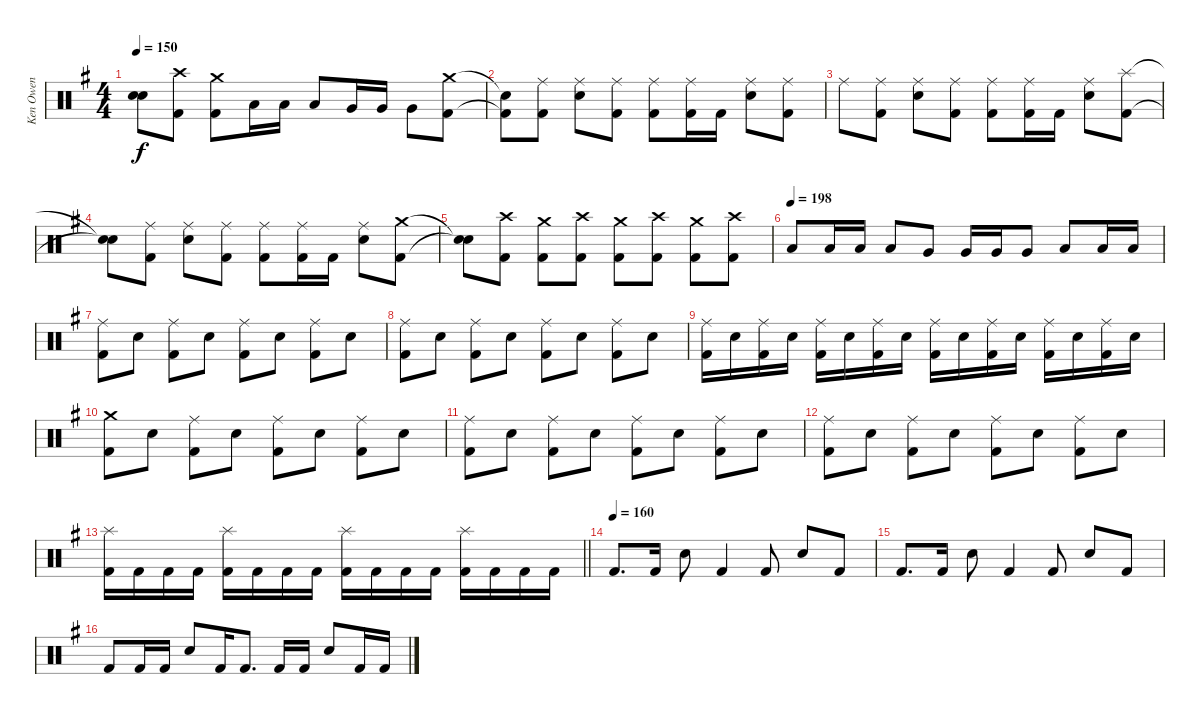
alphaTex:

\track ("Ken Owen" "Ken Owen") {instrument percussion}
\staff {score}
\articulation defaults
\ts (4 4)
\tempo 150
\clef neutral
\ks g
("Snare (hit)"{t} "Snare (hit)"{t}).8{dy f} ("Crash high (hit)" "Kick (hit) 2").8 ("Crash medium (hit)" "Kick (hit) 2").8 "Low Tom (hit)".16 "Low Tom (hit)".16 "Low Tom (hit)".8 "Very Low Tom (hit)".16 "Very Low Tom (hit)".16 "Very Low Tom (hit)".8 ("Crash medium (hit)" "Kick (hit) 2").8 |
("Snare (hit)"{t} "Kick (hit) 2"{t}).8 ("Ride (middle)" "Kick (hit) 2").8 ("Ride (middle)" "Snare (hit) 2").8 ("Ride (middle)" "Kick (hit) 2").8 ("Ride (middle)" "Kick (hit) 2").8 ("Ride (middle)" "Kick (hit) 2").16 "Kick (hit) 2".16 ("Ride (middle)" "Snare (hit) 2").8 ("Ride (middle)" "Kick (hit) 2").8 |
"Ride (middle)".8 ("Ride (middle)" "Kick (hit) 2").8 ("Ride (middle)" "Snare (hit) 2").8 ("Ride (middle)" "Kick (hit) 2").8 ("Ride (middle)" "Kick (hit) 2").8 ("Ride (middle)" "Kick (hit) 2").16 "Kick (hit) 2".16 ("Ride (middle)" "Snare (hit) 2").8 ("Splash (hit)" "Kick (hit) 2").8 |
("Snare (hit)"{t} "Snare (hit)"{t}).8 ("Ride (middle)" "Kick (hit) 2").8 ("Ride (middle)" "Snare (hit) 2").8 ("Ride (middle)" "Kick (hit) 2").8 ("Ride (middle)" "Kick (hit) 2").8 ("Ride (middle)" "Kick (hit) 2").16 "Kick (hit) 2".16 ("Ride (middle)" "Snare (hit) 2").8 ("Crash medium (hit)" "Kick (hit) 2").8 |
("Snare (hit)"{t} "Snare (hit)"{t}).8 ("Crash high (hit)" "Kick (hit) 2").8 ("Crash medium (hit)" "Kick (hit) 2").8 ("Crash high (hit)" "Kick (hit) 2").8 ("Crash medium (hit)" "Kick (hit) 2").8 ("Crash high (hit)" "Kick (hit) 2").8 ("Crash medium (hit)" "Kick (hit) 2").8 ("Crash high (hit)" "Kick (hit) 2").8 |
\tempo (198)
"Low Tom (hit)".8 "Low Tom (hit)".16 "Low Tom (hit)".16 "Low Tom (hit)".8 "Very Low Tom (hit)".8 "Very Low Tom (hit)".16 "Very Low Tom (hit)".16 "Very Low Tom (hit)".8 "Low Floor Tom (hit)".8 "Low Floor Tom (hit)".16 "Low Floor Tom (hit)".16 |
("Ride (middle)" "Kick (hit) 2").8 "Snare (hit) 2".8 ("Ride (middle)" "Kick (hit) 2").8 "Snare (hit) 2".8 ("Ride (middle)" "Kick (hit) 2").8 "Snare (hit) 2".8 ("Ride (middle)" "Kick (hit) 2").8 "Snare (hit) 2".8 |
("Ride (middle)" "Kick (hit) 2").8 "Snare (hit) 2".8 ("Ride (middle)" "Kick (hit) 2").8 "Snare (hit) 2".8 ("Ride (middle)" "Kick (hit) 2").8 "Snare (hit) 2".8 ("Ride (middle)" "Kick (hit) 2").8 "Snare (hit) 2".8 |
("Ride (middle)" "Kick (hit) 2").16 "Snare (hit) 2".16 ("Ride (middle)" "Kick (hit) 2").16 "Snare (hit) 2".16 ("Ride (middle)" "Kick (hit) 2").16 "Snare (hit) 2".16 ("Ride (middle)" "Kick (hit) 2").16 "Snare (hit) 2".16 ("Ride (middle)" "Kick (hit) 2").16 "Snare (hit) 2".16 ("Ride (middle)" "Kick (hit) 2").16 "Snare (hit) 2".16 ("Ride (middle)" "Kick (hit) 2").16 "Snare (hit) 2".16 ("Ride (middle)" "Kick (hit) 2").16 "Snare (hit) 2".16 |
("Crash medium (hit)" "Kick (hit) 2").8 "Snare (hit) 2".8 ("Ride (middle)" "Kick (hit) 2").8 "Snare (hit) 2".8 ("Ride (middle)" "Kick (hit) 2").8 "Snare (hit) 2".8 ("Ride (middle)" "Kick (hit) 2").8 "Snare (hit) 2".8 |
("Ride (middle)" "Kick (hit) 2").8 "Snare (hit) 2".8 ("Ride (middle)" "Kick (hit) 2").8 "Snare (hit) 2".8 ("Ride (middle)" "Kick (hit) 2").8 "Snare (hit) 2".8 ("Ride (middle)" "Kick (hit) 2").8 "Snare (hit) 2".8 |
("Ride (middle)" "Kick (hit) 2").8 "Snare (hit) 2".8 ("Ride (middle)" "Kick (hit) 2").8 "Snare (hit) 2".8 ("Ride (middle)" "Kick (hit) 2").8 "Snare (hit) 2".8 ("Ride (middle)" "Kick (hit) 2").8 "Snare (hit) 2".8 |
\barLineRight lightlight
("Splash (hit)" "Kick (hit) 2").16 "Kick (hit) 2".16 "Kick (hit) 2".16 "Kick (hit) 2".16 ("Splash (hit)" "Kick (hit) 2").16 "Kick (hit) 2".16 "Kick (hit) 2".16 "Kick (hit) 2".16 ("Splash (hit)" "Kick (hit) 2").16 "Kick (hit) 2".16 "Kick (hit) 2".16 "Kick (hit) 2".16 ("Splash (hit)" "Kick (hit) 2").16 "Kick (hit) 2".16 "Kick (hit) 2".16 "Kick (hit) 2".16 |
\tempo (160)
"Kick (hit) 2".8{d} "Kick (hit) 2".16 "Snare (hit) 2".8 "Kick (hit) 2".4 "Kick (hit) 2".8 "Snare (hit) 2".8 "Kick (hit) 2".8 |
"Kick (hit) 2".8{d} "Kick (hit) 2".16 "Snare (hit) 2".8 "Kick (hit) 2".4 "Kick (hit) 2".8 "Snare (hit) 2".8 "Kick (hit) 2".8 |
"Kick (hit) 2".8 "Kick (hit) 2".16 "Kick (hit) 2".16 "Snare (hit) 2".8 "Kick (hit) 2".16 "Kick (hit) 2".8{d} "Kick (hit) 2".16 "Kick (hit) 2".16 "Snare (hit) 2".8 "Kick (hit) 2".16 "Kick (hit) 2".16
